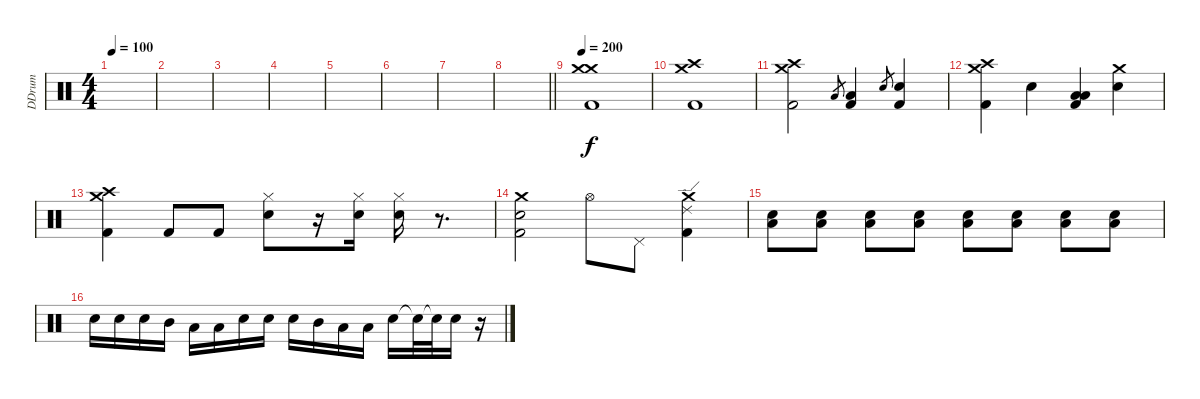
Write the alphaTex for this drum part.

\track ("DDrum" "DDrum") {instrument percussion}
\staff {score}
\articulation defaults
\ts (4 4)
\tempo 100
\clef neutral
\ks c
|
|
|
|
|
|
|
\barLineRight lightlight
|
\tempo 200
("Crash medium (hit)" "Crash medium (hit)" "Kick (hit) 2").1 |
("Crash high (hit)" "Crash medium (hit)" "Kick (hit) 2").1 |
("Crash medium (hit)" "Crash high (hit)" "Kick (hit) 2").2 "Low Tom (hit)".8{gr} ("Low Tom (hit)" "Kick (hit) 2").4 "Electric Snare (hit)".8{gr} ("Electric Snare (hit)" "Kick (hit) 2").4 |
("Crash medium (hit)" "Crash high (hit)" "Kick (hit) 2").4 "Electric Snare (hit)".4 ("Low Floor Tom (hit)" "Low Tom (hit)" "Kick (hit) 2").4 ("Crash medium (hit)" "Electric Snare (hit)").4 |
("Crash medium (hit)" "Crash high (hit)" "Kick (hit) 2").4 "Kick (hit) 2".8 "Kick (hit) 2".8 ("Hi-Hat (closed)" "Electric Snare (hit)").8 r.16 ("Hi-Hat (closed)" "Electric Snare (hit)").16 ("Hi-Hat (closed)" "Electric Snare (hit)").16 r.8{d} |
("Crash medium (hit)" "Electric Snare (hit)" "Kick (hit) 2").2 "Hi-Hat (open)".8 "Pedal Hi-Hat (hit)".8 ("Crash medium (hit)" "Ride (edge) 2" "Kick (hit) 2").4 |
("Electric Snare (hit)" "Low Tom (hit)").8 ("Electric Snare (hit)" "Low Tom (hit)").8 ("Electric Snare (hit)" "Low Tom (hit)").8 ("Electric Snare (hit)" "Low Tom (hit)").8 ("Electric Snare (hit)" "Low Tom (hit)").8 ("Electric Snare (hit)" "Low Tom (hit)").8 ("Electric Snare (hit)" "Low Tom (hit)").8 ("Electric Snare (hit)" "Low Tom (hit)").8 |
"Electric Snare (hit)".16 "Electric Snare (hit)".16 "Electric Snare (hit)".16 "Mid Tom (hit)".16 "Low Tom (hit)".16 "Low Floor Tom (hit)".16 "Electric Snare (hit)".16 "Electric Snare (hit)".16 "Electric Snare (hit)".16 "Mid Tom (hit)".16 "Low Tom (hit)".16 "Low Floor Tom (hit)".16 "Electric Snare (hit)".16 "Electric Snare (hit)"{t}.32 "Electric Snare (hit)"{t}.32 "Electric Snare (hit)".16 r.16
